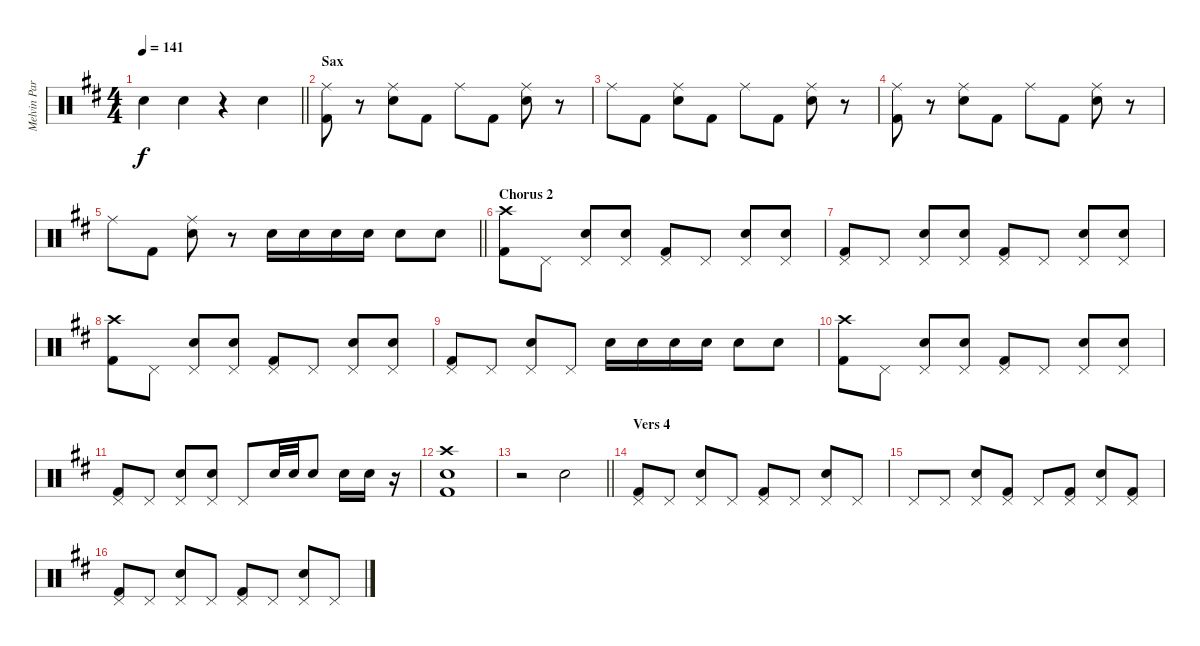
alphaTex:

\track ("Melvin Parker - Drums " "Melvin Par") {instrument percussion}
\staff {score}
\articulation defaults
\ts (4 4)
\tempo 141
\clef neutral
\barLineRight lightlight
\ks d "Electric Snare (hit)".4{dy f} "Electric Snare (hit)".4
r.4 "Electric Snare (hit)".4 |
\section ("" "Sax")
("Ride (middle)" "Kick (hit) 2").8 r.8 ("Ride (middle)" "Electric Snare (hit)").8 "Kick (hit) 2".8 "Ride (middle)".8 "Kick (hit) 2".8 ("Ride (middle)" "Electric Snare (hit)").8 r.8 |
"Ride (middle)".8 "Kick (hit) 2".8 ("Ride (middle)" "Electric Snare (hit)").8 "Kick (hit) 2".8 "Ride (middle)".8 "Kick (hit) 2".8 ("Ride (middle)" "Electric Snare (hit)").8 r.8 |
("Ride (middle)" "Kick (hit) 2").8 r.8 ("Ride (middle)" "Electric Snare (hit)").8 "Kick (hit) 2".8 "Ride (middle)".8 "Kick (hit) 2".8 ("Ride (middle)" "Electric Snare (hit)").8 r.8 |
\barLineRight lightlight "Ride (middle)".8 "Kick (hit) 2".8
("Ride (middle)" "Electric Snare (hit)").8 r.8 "Electric Snare (hit)".16 "Electric Snare (hit)".16 "Electric Snare (hit)".16 "Electric Snare (hit)".16 "Electric Snare (hit)".8 "Electric Snare (hit)".8 |
\section ("" "Chorus 2")
("Crash high (hit)" "Kick (hit) 2").8 "Pedal Hi-Hat (hit)".8 ("Pedal Hi-Hat (hit)" "Electric Snare (hit)").8 ("Pedal Hi-Hat (hit)" "Electric Snare (hit)").8 ("Pedal Hi-Hat (hit)" "Kick (hit) 2").8 "Pedal Hi-Hat (hit)".8 ("Pedal Hi-Hat (hit)" "Electric Snare (hit)").8 ("Pedal Hi-Hat (hit)" "Electric Snare (hit)").8 |
("Pedal Hi-Hat (hit)" "Kick (hit) 2").8 "Pedal Hi-Hat (hit)".8 ("Pedal Hi-Hat (hit)" "Electric Snare (hit)").8 ("Pedal Hi-Hat (hit)" "Electric Snare (hit)").8 ("Pedal Hi-Hat (hit)" "Kick (hit) 2").8 "Pedal Hi-Hat (hit)".8 ("Pedal Hi-Hat (hit)" "Electric Snare (hit)").8 ("Pedal Hi-Hat (hit)" "Electric Snare (hit)").8 |
("Crash high (hit)" "Kick (hit) 2").8 "Pedal Hi-Hat (hit)".8 ("Pedal Hi-Hat (hit)" "Electric Snare (hit)").8 ("Pedal Hi-Hat (hit)" "Electric Snare (hit)").8 ("Pedal Hi-Hat (hit)" "Kick (hit) 2").8 "Pedal Hi-Hat (hit)".8 ("Pedal Hi-Hat (hit)" "Electric Snare (hit)").8 ("Pedal Hi-Hat (hit)" "Electric Snare (hit)").8 |
("Pedal Hi-Hat (hit)" "Kick (hit) 2").8 "Pedal Hi-Hat (hit)".8 ("Pedal Hi-Hat (hit)" "Electric Snare (hit)").8 "Pedal Hi-Hat (hit)".8 "Electric Snare (hit)".16 "Electric Snare (hit)".16 "Electric Snare (hit)".16 "Electric Snare (hit)".16 "Electric Snare (hit)".8 "Electric Snare (hit)".8 |
("Crash high (hit)" "Kick (hit) 2").8 "Pedal Hi-Hat (hit)".8 ("Pedal Hi-Hat (hit)" "Electric Snare (hit)").8 ("Pedal Hi-Hat (hit)" "Electric Snare (hit)").8 ("Pedal Hi-Hat (hit)" "Kick (hit) 2").8 "Pedal Hi-Hat (hit)".8 ("Pedal Hi-Hat (hit)" "Electric Snare (hit)").8 ("Pedal Hi-Hat (hit)" "Electric Snare (hit)").8 |
("Pedal Hi-Hat (hit)" "Kick (hit) 2").8 "Pedal Hi-Hat (hit)".8 ("Pedal Hi-Hat (hit)" "Electric Snare (hit)").8 ("Pedal Hi-Hat (hit)" "Electric Snare (hit)").8 "Pedal Hi-Hat (hit)".8 "Electric Snare (hit)".32 "Electric Snare (hit)".32 "Electric Snare (hit)".8 "Electric Snare (hit)".16 "Electric Snare (hit)".16 r.16 |
("Crash high (hit)" "Electric Snare (hit)" "Kick (hit) 2").1 |
\barLineRight lightlight
r.2 "Electric Snare (hit)".2 |
\section ("" "Vers 4")
("Pedal Hi-Hat (hit)" "Kick (hit) 2").8 "Pedal Hi-Hat (hit)".8 ("Pedal Hi-Hat (hit)" "Electric Snare (hit)").8 "Pedal Hi-Hat (hit)".8 ("Pedal Hi-Hat (hit)" "Kick (hit) 2").8 "Pedal Hi-Hat (hit)".8 ("Pedal Hi-Hat (hit)" "Electric Snare (hit)").8 "Pedal Hi-Hat (hit)".8 |
"Pedal Hi-Hat (hit)".8 "Pedal Hi-Hat (hit)".8 ("Pedal Hi-Hat (hit)" "Electric Snare (hit)").8 ("Pedal Hi-Hat (hit)" "Kick (hit) 2").8 "Pedal Hi-Hat (hit)".8 ("Pedal Hi-Hat (hit)" "Kick (hit) 2").8 ("Pedal Hi-Hat (hit)" "Electric Snare (hit)").8 ("Pedal Hi-Hat (hit)" "Kick (hit) 2").8 |
("Pedal Hi-Hat (hit)" "Kick (hit) 2").8 "Pedal Hi-Hat (hit)".8 ("Pedal Hi-Hat (hit)" "Electric Snare (hit)").8 "Pedal Hi-Hat (hit)".8 ("Pedal Hi-Hat (hit)" "Kick (hit) 2").8 "Pedal Hi-Hat (hit)".8 ("Pedal Hi-Hat (hit)" "Electric Snare (hit)").8 "Pedal Hi-Hat (hit)".8
